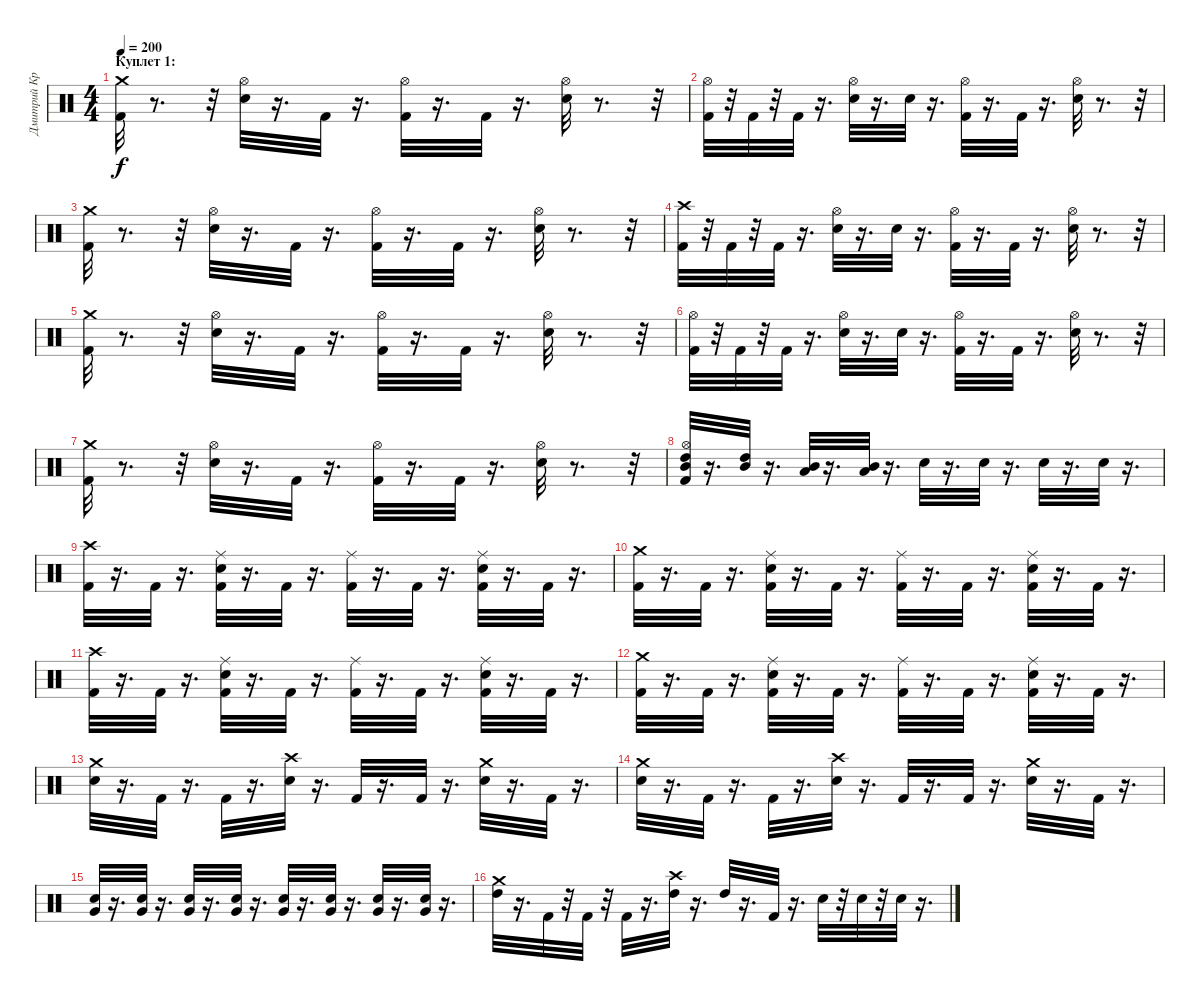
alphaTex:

\track ("Дмитрий Кривенков" "Дмитрий Кр") {instrument percussion}
\staff {score}
\articulation defaults
\ts (4 4)
\section ("" "Куплет 1:")
\tempo 200
\clef neutral
\ks c
("Crash medium (hit)" "Kick (hit) 2").32{dy f} r.8{d} r.32 ("Hi-Hat (open)" "Electric Snare (hit)").32 r.16{d} "Kick (hit) 2".32 r.16{d} ("Hi-Hat (open)" "Kick (hit) 2").32 r.16{d} "Kick (hit) 2".32 r.16{d} ("Hi-Hat (open)" "Electric Snare (hit)").32 r.8{d} r.32 |
("Hi-Hat (open)" "Kick (hit) 2").32 r.32 "Kick (hit) 2".32 r.32 "Kick (hit) 2".32 r.16{d} ("Hi-Hat (open)" "Electric Snare (hit)").32 r.16{d} "Electric Snare (hit)".32 r.16{d} ("Hi-Hat (open)" "Kick (hit) 2").32 r.16{d} "Kick (hit) 2".32 r.16{d} ("Hi-Hat (open)" "Electric Snare (hit)").32 r.8{d} r.32 |
("Crash medium (hit)" "Kick (hit) 2").32 r.8{d} r.32 ("Hi-Hat (open)" "Electric Snare (hit)").32 r.16{d} "Kick (hit) 2".32 r.16{d} ("Hi-Hat (open)" "Kick (hit) 2").32 r.16{d} "Kick (hit) 2".32 r.16{d} ("Hi-Hat (open)" "Electric Snare (hit)").32 r.8{d} r.32 |
("Crash high (hit)" "Kick (hit) 2").32 r.32 "Kick (hit) 2".32 r.32 "Kick (hit) 2".32 r.16{d} ("Hi-Hat (open)" "Electric Snare (hit)").32 r.16{d} "Electric Snare (hit)".32 r.16{d} ("Hi-Hat (open)" "Kick (hit) 2").32 r.16{d} "Kick (hit) 2".32 r.16{d} ("Hi-Hat (open)" "Electric Snare (hit)").32 r.8{d} r.32 |
("Crash medium (hit)" "Kick (hit) 2").32 r.8{d} r.32 ("Hi-Hat (open)" "Electric Snare (hit)").32 r.16{d} "Kick (hit) 2".32 r.16{d} ("Hi-Hat (open)" "Kick (hit) 2").32 r.16{d} "Kick (hit) 2".32 r.16{d} ("Hi-Hat (open)" "Electric Snare (hit)").32 r.8{d} r.32 |
("Hi-Hat (open)" "Kick (hit) 2").32 r.32 "Kick (hit) 2".32 r.32 "Kick (hit) 2".32 r.16{d} ("Hi-Hat (open)" "Electric Snare (hit)").32 r.16{d} "Electric Snare (hit)".32 r.16{d} ("Hi-Hat (open)" "Kick (hit) 2").32 r.16{d} "Kick (hit) 2".32 r.16{d} ("Hi-Hat (open)" "Electric Snare (hit)").32 r.8{d} r.32 |
("Crash medium (hit)" "Kick (hit) 2").32 r.8{d} r.32 ("Hi-Hat (open)" "Electric Snare (hit)").32 r.16{d} "Kick (hit) 2".32 r.16{d} ("Hi-Hat (open)" "Kick (hit) 2").32 r.16{d} "Kick (hit) 2".32 r.16{d} ("Hi-Hat (open)" "Electric Snare (hit)").32 r.8{d} r.32 |
("Mid Tom (hit)" "High Tom (hit)" "Hi-Hat (open)" "Kick (hit) 2").32 r.16{d} ("Mid Tom (hit)" "High Tom (hit)").32 r.16{d} ("Low Tom (hit)" "Mid Tom (hit)").32 r.16{d} ("Low Tom (hit)" "Mid Tom (hit)").32 r.16{d} "Electric Snare (hit)".32 r.16{d} "Electric Snare (hit)".32 r.16{d} "Electric Snare (hit)".32 r.16{d} "Electric Snare (hit)".32 r.16{d} |
("Crash high (hit)" "Kick (hit) 2").32 r.16{d} "Kick (hit) 2".32 r.16{d} ("Ride (middle)" "Electric Snare (hit)" "Kick (hit) 2").32 r.16{d} "Kick (hit) 2".32 r.16{d} ("Ride (middle)" "Kick (hit) 2").32 r.16{d} "Kick (hit) 2".32 r.16{d} ("Ride (middle)" "Kick (hit) 2" "Electric Snare (hit)").32 r.16{d} "Kick (hit) 2".32 r.16{d} |
("Crash medium (hit)" "Kick (hit) 2").32 r.16{d} "Kick (hit) 2".32 r.16{d} ("Electric Snare (hit)" "Kick (hit) 2" "Ride (middle)").32 r.16{d} "Kick (hit) 2".32 r.16{d} ("Ride (middle)" "Kick (hit) 2").32 r.16{d} "Kick (hit) 2".32 r.16{d} ("Ride (middle)" "Kick (hit) 2" "Electric Snare (hit)").32 r.16{d} "Kick (hit) 2".32 r.16{d} |
("Crash high (hit)" "Kick (hit) 2").32 r.16{d} "Kick (hit) 2".32 r.16{d} ("Ride (middle)" "Electric Snare (hit)" "Kick (hit) 2").32 r.16{d} "Kick (hit) 2".32 r.16{d} ("Ride (middle)" "Kick (hit) 2").32 r.16{d} "Kick (hit) 2".32 r.16{d} ("Ride (middle)" "Kick (hit) 2" "Electric Snare (hit)").32 r.16{d} "Kick (hit) 2".32 r.16{d} |
("Crash medium (hit)" "Kick (hit) 2").32 r.16{d} "Kick (hit) 2".32 r.16{d} ("Electric Snare (hit)" "Kick (hit) 2" "Ride (middle)").32 r.16{d} "Kick (hit) 2".32 r.16{d} ("Ride (middle)" "Kick (hit) 2").32 r.16{d} "Kick (hit) 2".32 r.16{d} ("Ride (middle)" "Kick (hit) 2" "Electric Snare (hit)").32 r.16{d} "Kick (hit) 2".32 r.16{d} |
("Crash medium (hit)" "Electric Snare (hit)").32 r.16{d} "Kick (hit) 2".32 r.16{d} "Kick (hit) 2".32 r.16{d} ("Electric Snare (hit)" "Crash high (hit)").32 r.16{d} "Kick (hit) 2".32 r.16{d} "Kick (hit) 2".32 r.16{d} ("Electric Snare (hit)" "Crash medium (hit)").32 r.16{d} "Kick (hit) 2".32 r.16{d} |
("Electric Snare (hit)" "Crash medium (hit)").32 r.16{d} "Kick (hit) 2".32 r.16{d} "Kick (hit) 2".32 r.16{d} ("Electric Snare (hit)" "Crash high (hit)").32 r.16{d} "Kick (hit) 2".32 r.16{d} "Kick (hit) 2".32 r.16{d} ("Electric Snare (hit)" "Crash medium (hit)").32 r.16{d} "Kick (hit) 2".32 r.16{d} |
("Electric Snare (hit)" "Very Low Tom (hit)").32 r.16{d} ("Electric Snare (hit)" "Very Low Tom (hit)").32 r.16{d} ("Electric Snare (hit)" "Very Low Tom (hit)").32 r.16{d} ("Electric Snare (hit)" "Very Low Tom (hit)").32 r.16{d} ("Electric Snare (hit)" "Very Low Tom (hit)").32 r.16{d} ("Electric Snare (hit)" "Very Low Tom (hit)").32 r.16{d} ("Electric Snare (hit)" "Very Low Tom (hit)").32 r.16{d} ("Electric Snare (hit)" "Very Low Tom (hit)").32 r.16{d} |
("High Tom (hit)" "Crash medium (hit)").32 r.16{d} "Kick (hit) 2".32 r.32 "Kick (hit) 2".32 r.32 "Kick (hit) 2".32 r.16{d} ("Crash high (hit)" "High Tom (hit)").32 r.16{d} "High Tom (hit)".32 r.16{d} "Kick (hit) 2".32 r.16{d} "Electric Snare (hit)".32 r.32 "Electric Snare (hit)".32 r.32 "Electric Snare (hit)".32 r.16{d}
